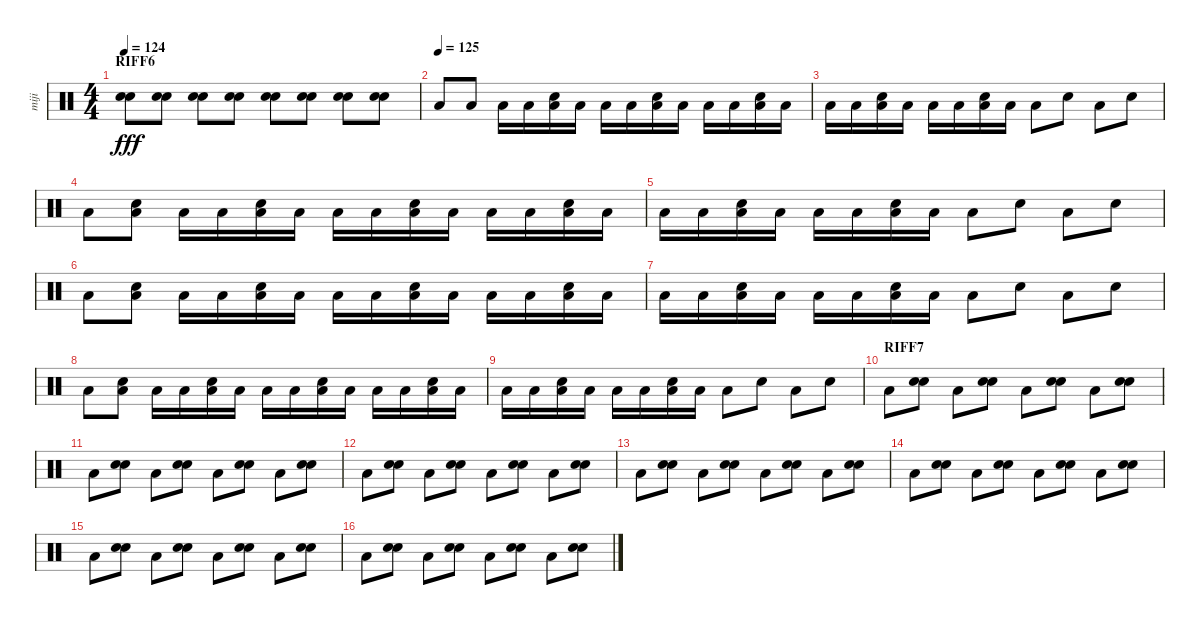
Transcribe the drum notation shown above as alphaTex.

\track ("miji" "miji") {instrument percussion}
\staff {score}
\articulation defaults
\ts (4 4)
\section ("" "RIFF6")
\tempo 124
\clef neutral
\ks c
("Electric Snare (hit)" "Electric Snare (hit)").8{dy fff} ("Electric Snare (hit)" "Electric Snare (hit)").8 ("Electric Snare (hit)" "Electric Snare (hit)").8 ("Electric Snare (hit)" "Electric Snare (hit)").8 ("Electric Snare (hit)" "Electric Snare (hit)").8 ("Electric Snare (hit)" "Electric Snare (hit)").8 ("Electric Snare (hit)" "Electric Snare (hit)").8 ("Electric Snare (hit)" "Electric Snare (hit)").8 |
\tempo (125)
"Low Tom (hit)".8 "Low Tom (hit)".8 "Low Tom (hit)".16 "Low Floor Tom (hit)".16 ("Low Floor Tom (hit)" "Electric Snare (hit)").16 "Low Floor Tom (hit)".16 "Low Floor Tom (hit)".16 "Low Floor Tom (hit)".16 ("Low Floor Tom (hit)" "Electric Snare (hit)").16 "Low Floor Tom (hit)".16 "Low Floor Tom (hit)".16 "Low Floor Tom (hit)".16 ("Low Floor Tom (hit)" "Electric Snare (hit)").16 "Low Floor Tom (hit)".16 |
"Low Floor Tom (hit)".16 "Low Floor Tom (hit)".16 ("Low Floor Tom (hit)" "Electric Snare (hit)").16 "Low Floor Tom (hit)".16 "Low Floor Tom (hit)".16 "Low Floor Tom (hit)".16 ("Low Floor Tom (hit)" "Electric Snare (hit)").16 "Low Floor Tom (hit)".16 "Low Floor Tom (hit)".8 "Electric Snare (hit)".8 "Low Floor Tom (hit)".8 "Electric Snare (hit)".8 |
"Low Tom (hit)".8 ("Low Tom (hit)" "Electric Snare (hit)").8 "Low Tom (hit)".16 "Low Floor Tom (hit)".16 ("Low Floor Tom (hit)" "Electric Snare (hit)").16 "Low Floor Tom (hit)".16 "Low Floor Tom (hit)".16 "Low Floor Tom (hit)".16 ("Low Floor Tom (hit)" "Electric Snare (hit)").16 "Low Floor Tom (hit)".16 "Low Floor Tom (hit)".16 "Low Floor Tom (hit)".16 ("Low Floor Tom (hit)" "Electric Snare (hit)").16 "Low Floor Tom (hit)".16 |
"Low Floor Tom (hit)".16 "Low Floor Tom (hit)".16 ("Low Floor Tom (hit)" "Electric Snare (hit)").16 "Low Floor Tom (hit)".16 "Low Floor Tom (hit)".16 "Low Floor Tom (hit)".16 ("Low Floor Tom (hit)" "Electric Snare (hit)").16 "Low Floor Tom (hit)".16 "Low Floor Tom (hit)".8 "Electric Snare (hit)".8 "Low Floor Tom (hit)".8 "Electric Snare (hit)".8 |
"Low Tom (hit)".8 ("Low Tom (hit)" "Electric Snare (hit)").8 "Low Tom (hit)".16 "Low Floor Tom (hit)".16 ("Low Floor Tom (hit)" "Electric Snare (hit)").16 "Low Floor Tom (hit)".16 "Low Floor Tom (hit)".16 "Low Floor Tom (hit)".16 ("Low Floor Tom (hit)" "Electric Snare (hit)").16 "Low Floor Tom (hit)".16 "Low Floor Tom (hit)".16 "Low Floor Tom (hit)".16 ("Low Floor Tom (hit)" "Electric Snare (hit)").16 "Low Floor Tom (hit)".16 |
"Low Floor Tom (hit)".16 "Low Floor Tom (hit)".16 ("Low Floor Tom (hit)" "Electric Snare (hit)").16 "Low Floor Tom (hit)".16 "Low Floor Tom (hit)".16 "Low Floor Tom (hit)".16 ("Low Floor Tom (hit)" "Electric Snare (hit)").16 "Low Floor Tom (hit)".16 "Low Floor Tom (hit)".8 "Electric Snare (hit)".8 "Low Floor Tom (hit)".8 "Electric Snare (hit)".8 |
"Low Tom (hit)".8 ("Low Tom (hit)" "Electric Snare (hit)").8 "Low Tom (hit)".16 "Low Floor Tom (hit)".16 ("Low Floor Tom (hit)" "Electric Snare (hit)").16 "Low Floor Tom (hit)".16 "Low Floor Tom (hit)".16 "Low Floor Tom (hit)".16 ("Low Floor Tom (hit)" "Electric Snare (hit)").16 "Low Floor Tom (hit)".16 "Low Floor Tom (hit)".16 "Low Floor Tom (hit)".16 ("Low Floor Tom (hit)" "Electric Snare (hit)").16 "Low Floor Tom (hit)".16 |
"Low Floor Tom (hit)".16 "Low Floor Tom (hit)".16 ("Low Floor Tom (hit)" "Electric Snare (hit)").16 "Low Floor Tom (hit)".16 "Low Floor Tom (hit)".16 "Low Floor Tom (hit)".16 ("Low Floor Tom (hit)" "Electric Snare (hit)").16 "Low Floor Tom (hit)".16 "Low Floor Tom (hit)".8 "Electric Snare (hit)".8 "Low Floor Tom (hit)".8 "Electric Snare (hit)".8 |
\section ("" "RIFF7")
"Low Floor Tom (hit)".8 ("Electric Snare (hit)" "Electric Snare (hit)").8 "Low Floor Tom (hit)".8 ("Electric Snare (hit)" "Electric Snare (hit)").8 "Low Floor Tom (hit)".8 ("Electric Snare (hit)" "Electric Snare (hit)").8 "Low Floor Tom (hit)".8 ("Electric Snare (hit)" "Electric Snare (hit)").8 |
"Low Floor Tom (hit)".8 ("Electric Snare (hit)" "Electric Snare (hit)").8 "Low Floor Tom (hit)".8 ("Electric Snare (hit)" "Electric Snare (hit)").8 "Low Floor Tom (hit)".8 ("Electric Snare (hit)" "Electric Snare (hit)").8 "Low Floor Tom (hit)".8 ("Electric Snare (hit)" "Electric Snare (hit)").8 |
"Low Floor Tom (hit)".8 ("Electric Snare (hit)" "Electric Snare (hit)").8 "Low Floor Tom (hit)".8 ("Electric Snare (hit)" "Electric Snare (hit)").8 "Low Floor Tom (hit)".8 ("Electric Snare (hit)" "Electric Snare (hit)").8 "Low Floor Tom (hit)".8 ("Electric Snare (hit)" "Electric Snare (hit)").8 |
"Low Floor Tom (hit)".8 ("Electric Snare (hit)" "Electric Snare (hit)").8 "Low Floor Tom (hit)".8 ("Electric Snare (hit)" "Electric Snare (hit)").8 "Low Floor Tom (hit)".8 ("Electric Snare (hit)" "Electric Snare (hit)").8 "Low Floor Tom (hit)".8 ("Electric Snare (hit)" "Electric Snare (hit)").8 |
"Low Floor Tom (hit)".8 ("Electric Snare (hit)" "Electric Snare (hit)").8 "Low Floor Tom (hit)".8 ("Electric Snare (hit)" "Electric Snare (hit)").8 "Low Floor Tom (hit)".8 ("Electric Snare (hit)" "Electric Snare (hit)").8 "Low Floor Tom (hit)".8 ("Electric Snare (hit)" "Electric Snare (hit)").8 |
"Low Floor Tom (hit)".8 ("Electric Snare (hit)" "Electric Snare (hit)").8 "Low Floor Tom (hit)".8 ("Electric Snare (hit)" "Electric Snare (hit)").8 "Low Floor Tom (hit)".8 ("Electric Snare (hit)" "Electric Snare (hit)").8 "Low Floor Tom (hit)".8 ("Electric Snare (hit)" "Electric Snare (hit)").8 |
"Low Floor Tom (hit)".8 ("Electric Snare (hit)" "Electric Snare (hit)").8 "Low Floor Tom (hit)".8 ("Electric Snare (hit)" "Electric Snare (hit)").8 "Low Floor Tom (hit)".8 ("Electric Snare (hit)" "Electric Snare (hit)").8 "Low Floor Tom (hit)".8 ("Electric Snare (hit)" "Electric Snare (hit)").8
